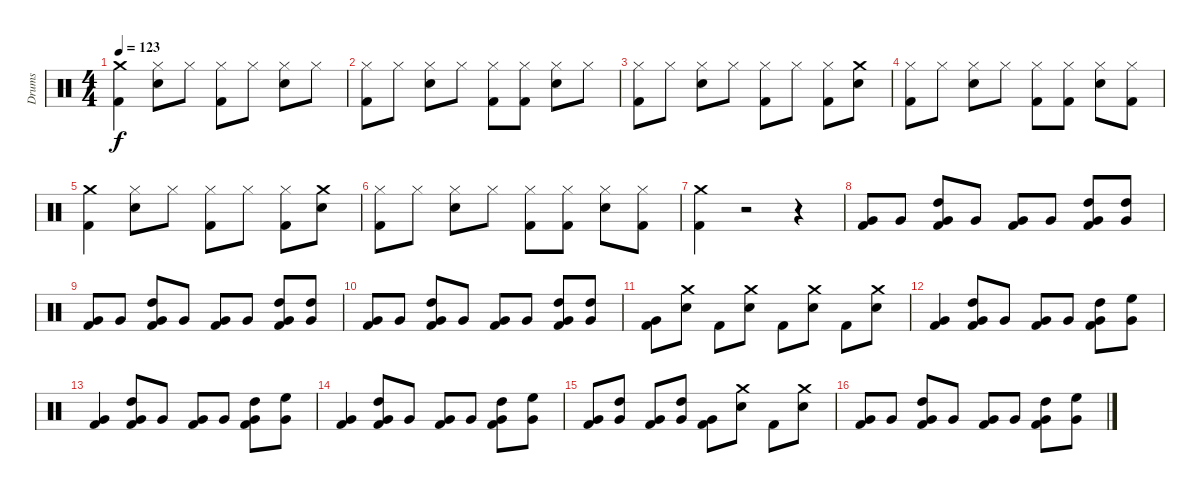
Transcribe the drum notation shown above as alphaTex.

\track ("Drums" "Drums") {instrument percussion}
\staff {score}
\articulation defaults
\ts (4 4)
\tempo 123
\clef neutral
\ks c
("Crash medium (hit)" "Kick (hit) 2").4{dy f} ("Hi-Hat (closed)" "Snare (hit) 2").8 "Hi-Hat (closed)".8 ("Hi-Hat (closed)" "Kick (hit) 2").8 "Hi-Hat (closed)".8 ("Snare (hit) 2" "Hi-Hat (closed)").8 "Hi-Hat (closed)".8 |
("Hi-Hat (closed)" "Kick (hit) 2").8 "Hi-Hat (closed)".8 ("Snare (hit) 2" "Hi-Hat (closed)").8 "Hi-Hat (closed)".8 ("Kick (hit) 2" "Hi-Hat (closed)").8 ("Kick (hit) 2" "Hi-Hat (closed)").8 ("Snare (hit) 2" "Hi-Hat (closed)").8 "Hi-Hat (closed)".8 |
("Hi-Hat (closed)" "Kick (hit) 2").8 "Hi-Hat (closed)".8 ("Snare (hit) 2" "Hi-Hat (closed)").8 "Hi-Hat (closed)".8 ("Hi-Hat (closed)" "Kick (hit) 2").8 "Hi-Hat (closed)".8 ("Hi-Hat (closed)" "Kick (hit) 2").8 ("Crash medium (hit)" "Snare (hit) 2").8 |
("Hi-Hat (closed)" "Kick (hit) 2").8 "Hi-Hat (closed)".8 ("Snare (hit) 2" "Hi-Hat (closed)").8 "Hi-Hat (closed)".8 ("Kick (hit) 2" "Hi-Hat (closed)").8 ("Kick (hit) 2" "Hi-Hat (closed)").8 ("Snare (hit) 2" "Hi-Hat (closed)").8 ("Kick (hit) 2" "Hi-Hat (closed)").8 |
("Kick (hit) 2" "Crash medium (hit)").4 ("Snare (hit) 2" "Hi-Hat (closed)").8 "Hi-Hat (closed)".8 ("Hi-Hat (closed)" "Kick (hit) 2").8 "Hi-Hat (closed)".8 ("Hi-Hat (closed)" "Kick (hit) 2").8 ("Crash medium (hit)" "Snare (hit) 2").8 |
("Hi-Hat (closed)" "Kick (hit) 2").8 "Hi-Hat (closed)".8 ("Snare (hit) 2" "Hi-Hat (closed)").8 "Hi-Hat (closed)".8 ("Kick (hit) 2" "Hi-Hat (closed)").8 ("Kick (hit) 2" "Hi-Hat (closed)").8 ("Snare (hit) 2" "Hi-Hat (closed)").8 ("Kick (hit) 2" "Hi-Hat (closed)").8 |
("Kick (hit) 2" "Crash medium (hit)").4 r.2 r.4 |
("Very Low Tom (hit)" "Kick (hit) 2").8 "Very Low Tom (hit)".8 ("High Tom (hit)" "Very Low Tom (hit)" "Kick (hit) 2").8 "Very Low Tom (hit)".8 ("Very Low Tom (hit)" "Kick (hit) 2").8 "Very Low Tom (hit)".8 ("High Tom (hit)" "Very Low Tom (hit)" "Kick (hit) 2").8 ("High Tom (hit)" "Very Low Tom (hit)").8 |
("Very Low Tom (hit)" "Kick (hit) 2").8 "Very Low Tom (hit)".8 ("High Tom (hit)" "Very Low Tom (hit)" "Kick (hit) 2").8 "Very Low Tom (hit)".8 ("Very Low Tom (hit)" "Kick (hit) 2").8 "Very Low Tom (hit)".8 ("High Tom (hit)" "Very Low Tom (hit)" "Kick (hit) 2").8 ("High Tom (hit)" "Very Low Tom (hit)").8 |
("Very Low Tom (hit)" "Kick (hit) 2").8 "Very Low Tom (hit)".8 ("High Tom (hit)" "Very Low Tom (hit)" "Kick (hit) 2").8 "Very Low Tom (hit)".8 ("Very Low Tom (hit)" "Kick (hit) 2").8 "Very Low Tom (hit)".8 ("High Tom (hit)" "Very Low Tom (hit)" "Kick (hit) 2").8 ("High Tom (hit)" "Very Low Tom (hit)").8 |
("Kick (hit) 2" "Very Low Tom (hit)").8 ("Crash medium (hit)" "Snare (hit) 2").8 "Kick (hit) 2".8 ("Snare (hit) 2" "Crash medium (hit)").8 "Kick (hit) 2".8 ("Crash medium (hit)" "Snare (hit) 2").8 "Kick (hit) 2".8 ("Crash medium (hit)" "Snare (hit) 2").8 |
("Very Low Tom (hit)" "Kick (hit) 2").4 ("High Tom (hit)" "Very Low Tom (hit)" "Kick (hit) 2").8 "Very Low Tom (hit)".8 ("Very Low Tom (hit)" "Kick (hit) 2").8 "Very Low Tom (hit)".8 ("High Tom (hit)" "Very Low Tom (hit)" "Kick (hit) 2").8 ("High Floor Tom (hit)" "Very Low Tom (hit)").8 |
("Very Low Tom (hit)" "Kick (hit) 2").4 ("High Tom (hit)" "Very Low Tom (hit)" "Kick (hit) 2").8 "Very Low Tom (hit)".8 ("Very Low Tom (hit)" "Kick (hit) 2").8 "Very Low Tom (hit)".8 ("High Tom (hit)" "Very Low Tom (hit)" "Kick (hit) 2").8 ("High Floor Tom (hit)" "Very Low Tom (hit)").8 |
("Very Low Tom (hit)" "Kick (hit) 2").4 ("High Tom (hit)" "Very Low Tom (hit)" "Kick (hit) 2").8 "Very Low Tom (hit)".8 ("Very Low Tom (hit)" "Kick (hit) 2").8 "Very Low Tom (hit)".8 ("High Tom (hit)" "Very Low Tom (hit)" "Kick (hit) 2").8 ("High Floor Tom (hit)" "Very Low Tom (hit)").8 |
("Very Low Tom (hit)" "Kick (hit) 2").8 ("High Tom (hit)" "Very Low Tom (hit)").8 ("Very Low Tom (hit)" "Kick (hit) 2").8 ("High Tom (hit)" "Very Low Tom (hit)").8 ("Very Low Tom (hit)" "Kick (hit) 2").8 ("Crash medium (hit)" "Snare (hit) 2").8 "Kick (hit) 2".8 ("Snare (hit) 2" "Crash medium (hit)").8 |
("Very Low Tom (hit)" "Kick (hit) 2").8 "Very Low Tom (hit)".8 ("High Tom (hit)" "Very Low Tom (hit)" "Kick (hit) 2").8 "Very Low Tom (hit)".8 ("Very Low Tom (hit)" "Kick (hit) 2").8 "Very Low Tom (hit)".8 ("High Tom (hit)" "Very Low Tom (hit)" "Kick (hit) 2").8 ("High Floor Tom (hit)" "Very Low Tom (hit)").8
